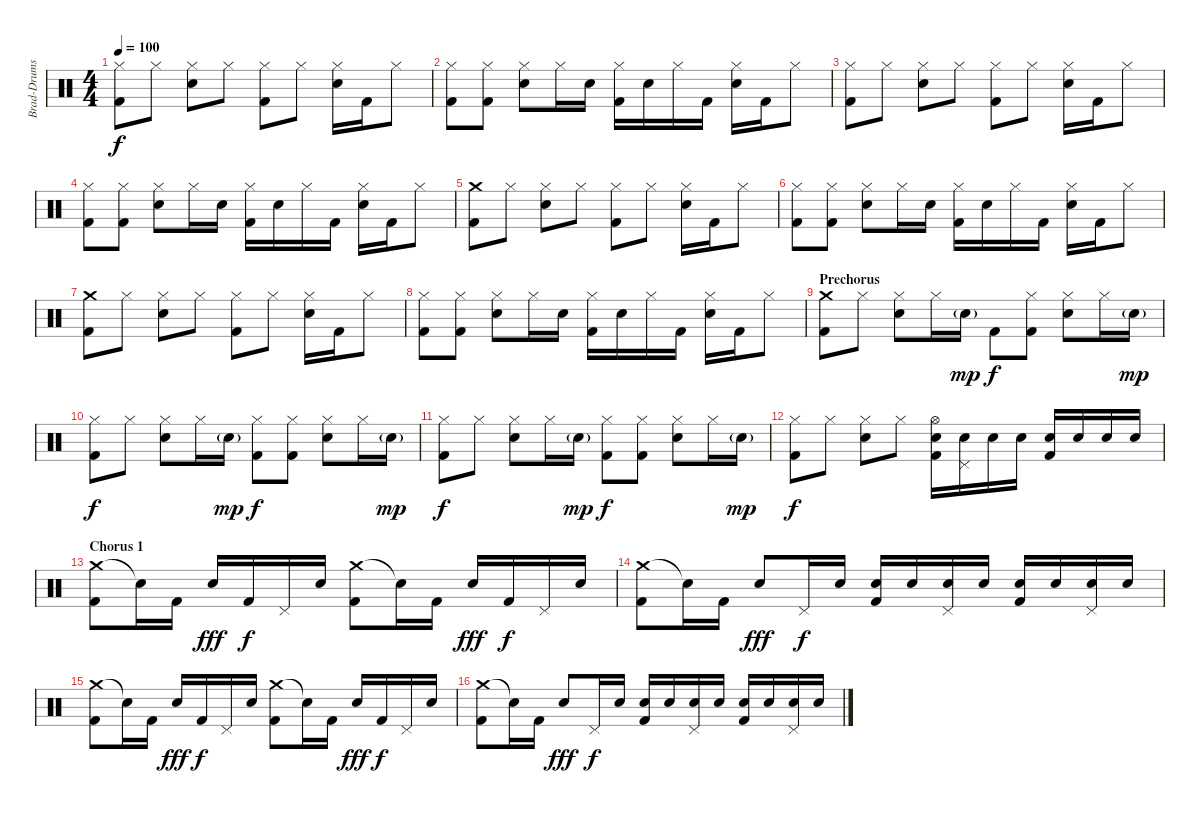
\track ("Brad-Drums" "Brad-Drums") {instrument percussion}
\staff {score}
\articulation defaults
\ts (4 4)
\tempo 100
\clef neutral
\ks c
("Hi-Hat (closed)" "Kick (hit) 2").8{dy f} "Hi-Hat (closed)".8 ("Hi-Hat (closed)" "Electric Snare (hit)").8 "Hi-Hat (closed)".8 ("Hi-Hat (closed)" "Kick (hit) 2").8 "Hi-Hat (closed)".8 ("Hi-Hat (closed)" "Electric Snare (hit)").16 "Kick (hit) 2".16 "Hi-Hat (closed)".8 |
("Hi-Hat (closed)" "Kick (hit) 2").8 ("Hi-Hat (closed)" "Kick (hit) 2").8 ("Hi-Hat (closed)" "Electric Snare (hit)").8 "Hi-Hat (closed)".16 "Electric Snare (hit)".16 ("Hi-Hat (closed)" "Kick (hit) 2").16 "Electric Snare (hit)".16 "Hi-Hat (closed)".16 "Kick (hit) 2".16 ("Hi-Hat (closed)" "Electric Snare (hit)").16 "Kick (hit) 2".16 "Hi-Hat (closed)".8 |
("Hi-Hat (closed)" "Kick (hit) 2").8 "Hi-Hat (closed)".8 ("Hi-Hat (closed)" "Electric Snare (hit)").8 "Hi-Hat (closed)".8 ("Hi-Hat (closed)" "Kick (hit) 2").8 "Hi-Hat (closed)".8 ("Hi-Hat (closed)" "Electric Snare (hit)").16 "Kick (hit) 2".16 "Hi-Hat (closed)".8 |
("Hi-Hat (closed)" "Kick (hit) 2").8 ("Hi-Hat (closed)" "Kick (hit) 2").8 ("Hi-Hat (closed)" "Electric Snare (hit)").8 "Hi-Hat (closed)".16 "Electric Snare (hit)".16 ("Hi-Hat (closed)" "Kick (hit) 2").16 "Electric Snare (hit)".16 "Hi-Hat (closed)".16 "Kick (hit) 2".16 ("Hi-Hat (closed)" "Electric Snare (hit)").16 "Kick (hit) 2".16 "Hi-Hat (closed)".8 |
("Crash medium (hit)" "Kick (hit) 2").8 "Hi-Hat (closed)".8 ("Hi-Hat (closed)" "Electric Snare (hit)").8 "Hi-Hat (closed)".8 ("Hi-Hat (closed)" "Kick (hit) 2").8 "Hi-Hat (closed)".8 ("Hi-Hat (closed)" "Electric Snare (hit)").16 "Kick (hit) 2".16 "Hi-Hat (closed)".8 |
("Hi-Hat (closed)" "Kick (hit) 2").8 ("Hi-Hat (closed)" "Kick (hit) 2").8 ("Hi-Hat (closed)" "Electric Snare (hit)").8 "Hi-Hat (closed)".16 "Electric Snare (hit)".16 ("Hi-Hat (closed)" "Kick (hit) 2").16 "Electric Snare (hit)".16 "Hi-Hat (closed)".16 "Kick (hit) 2".16 ("Hi-Hat (closed)" "Electric Snare (hit)").16 "Kick (hit) 2".16 "Hi-Hat (closed)".8 |
("Crash medium (hit)" "Kick (hit) 2").8 "Hi-Hat (closed)".8 ("Hi-Hat (closed)" "Electric Snare (hit)").8 "Hi-Hat (closed)".8 ("Hi-Hat (closed)" "Kick (hit) 2").8 "Hi-Hat (closed)".8 ("Hi-Hat (closed)" "Electric Snare (hit)").16 "Kick (hit) 2".16 "Hi-Hat (closed)".8 |
("Hi-Hat (closed)" "Kick (hit) 2").8 ("Hi-Hat (closed)" "Kick (hit) 2").8 ("Hi-Hat (closed)" "Electric Snare (hit)").8 "Hi-Hat (closed)".16 "Electric Snare (hit)".16 ("Hi-Hat (closed)" "Kick (hit) 2").16 "Electric Snare (hit)".16 "Hi-Hat (closed)".16 "Kick (hit) 2".16 ("Hi-Hat (closed)" "Electric Snare (hit)").16 "Kick (hit) 2".16 "Hi-Hat (closed)".8 |
\section ("" "Prechorus")
("Crash medium (hit)" "Kick (hit) 2").8 "Hi-Hat (closed)".8 ("Hi-Hat (closed)" "Electric Snare (hit)").8 "Hi-Hat (closed)".16 "Electric Snare (hit)"{g}.16{dy mp} "Kick (hit) 2".8{dy f} ("Hi-Hat (closed)" "Kick (hit) 2").8 ("Hi-Hat (closed)" "Electric Snare (hit)").8 "Hi-Hat (closed)".16 "Electric Snare (hit)"{g}.16{dy mp} |
("Hi-Hat (closed)" "Kick (hit) 2").8{dy f} "Hi-Hat (closed)".8 ("Hi-Hat (closed)" "Electric Snare (hit)").8 "Hi-Hat (closed)".16 "Electric Snare (hit)"{g}.16{dy mp} ("Hi-Hat (closed)" "Kick (hit) 2").8{dy f} ("Hi-Hat (closed)" "Kick (hit) 2").8 ("Hi-Hat (closed)" "Electric Snare (hit)").8 "Hi-Hat (closed)".16 "Electric Snare (hit)"{g}.16{dy mp} |
("Hi-Hat (closed)" "Kick (hit) 2").8{dy f} "Hi-Hat (closed)".8 ("Hi-Hat (closed)" "Electric Snare (hit)").8 "Hi-Hat (closed)".16 "Electric Snare (hit)"{g}.16{dy mp} ("Hi-Hat (closed)" "Kick (hit) 2").8{dy f} ("Hi-Hat (closed)" "Kick (hit) 2").8 ("Hi-Hat (closed)" "Electric Snare (hit)").8 "Hi-Hat (closed)".16 "Electric Snare (hit)"{g}.16{dy mp} |
("Hi-Hat (closed)" "Kick (hit) 2").8{dy f} "Hi-Hat (closed)".8 ("Hi-Hat (closed)" "Electric Snare (hit)").8 "Hi-Hat (closed)".8 ("Hi-Hat (open)" "Electric Snare (hit)" "Kick (hit) 2").16 ("Pedal Hi-Hat (hit)" "Electric Snare (hit)").16 "Electric Snare (hit)".16 "Electric Snare (hit)".16 ("Electric Snare (hit)" "Kick (hit) 2").16 "Electric Snare (hit)".16 "Electric Snare (hit)".16 "Electric Snare (hit)".16 |
\section ("" "Chorus 1")
("Crash medium (hit)" "Kick (hit) 2").8 "Snare (hit)"{t}.16 "Kick (hit) 2".16 "Electric Snare (hit)".16{dy fff} "Kick (hit) 2".16{dy f} "Pedal Hi-Hat (hit)".16 "Electric Snare (hit)".16 ("Crash medium (hit)" "Kick (hit) 2").8 "Snare (hit)"{t}.16 "Kick (hit) 2".16 "Electric Snare (hit)".16{dy fff} "Kick (hit) 2".16{dy f} "Pedal Hi-Hat (hit)".16 "Electric Snare (hit)".16 |
("Crash medium (hit)" "Kick (hit) 2").8 "Snare (hit)"{t}.16 "Kick (hit) 2".16 "Electric Snare (hit)".8{dy fff} "Pedal Hi-Hat (hit)".16{dy f} "Electric Snare (hit)".16 ("Electric Snare (hit)" "Kick (hit) 2").16 "Electric Snare (hit)".16 ("Pedal Hi-Hat (hit)" "Electric Snare (hit)").16 "Electric Snare (hit)".16 ("Electric Snare (hit)" "Kick (hit) 2").16 "Electric Snare (hit)".16 ("Pedal Hi-Hat (hit)" "Electric Snare (hit)").16 "Electric Snare (hit)".16 |
("Crash medium (hit)" "Kick (hit) 2").8 "Snare (hit)"{t}.16 "Kick (hit) 2".16 "Electric Snare (hit)".16{dy fff} "Kick (hit) 2".16{dy f} "Pedal Hi-Hat (hit)".16 "Electric Snare (hit)".16 ("Crash medium (hit)" "Kick (hit) 2").8 "Snare (hit)"{t}.16 "Kick (hit) 2".16 "Electric Snare (hit)".16{dy fff} "Kick (hit) 2".16{dy f} "Pedal Hi-Hat (hit)".16 "Electric Snare (hit)".16 |
("Crash medium (hit)" "Kick (hit) 2").8 "Snare (hit)"{t}.16 "Kick (hit) 2".16 "Electric Snare (hit)".8{dy fff} "Pedal Hi-Hat (hit)".16{dy f} "Electric Snare (hit)".16 ("Electric Snare (hit)" "Kick (hit) 2").16 "Electric Snare (hit)".16 ("Pedal Hi-Hat (hit)" "Electric Snare (hit)").16 "Electric Snare (hit)".16 ("Electric Snare (hit)" "Kick (hit) 2").16 "Electric Snare (hit)".16 ("Pedal Hi-Hat (hit)" "Electric Snare (hit)").16 "Electric Snare (hit)".16
